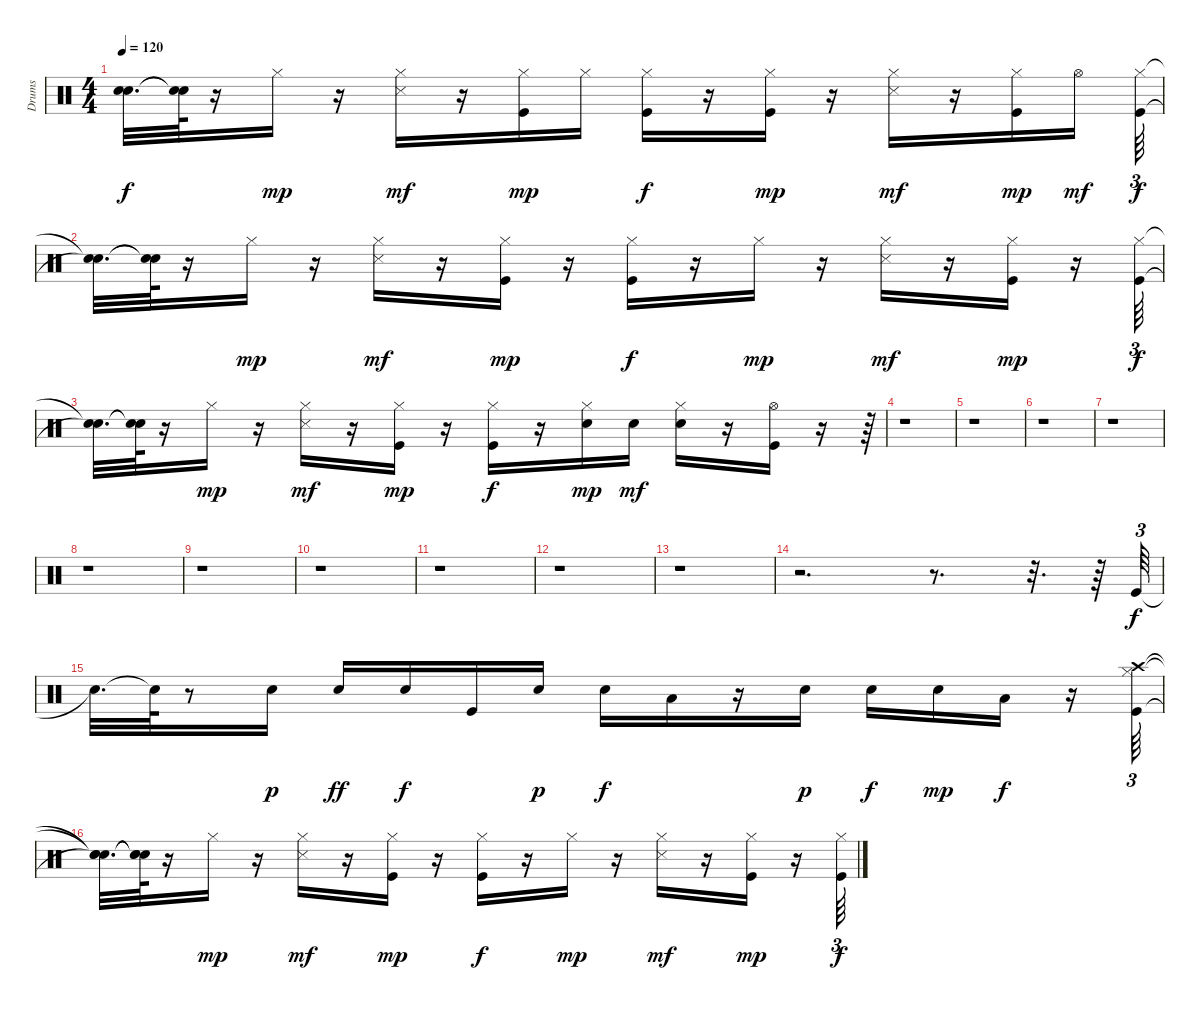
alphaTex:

\track ("Drums" "Drums") {instrument percussion}
\staff {score}
\articulation defaults
\ts (4 4)
\tempo 120
\clef neutral
\ks c
("Snare (hit)"{t} "Snare (hit)"{t}).32{d dy f} ("Snare (hit)"{t} "Snare (hit)"{t}).64 r.16 "Hi-Hat (closed)".16{dy mp} r.16 ("Hi-Hat (closed)" "Snare (side stick) 3").16{dy mf} r.16 ("Kick (hit)" "Hi-Hat (closed)").16{dy mp} "Hi-Hat (closed)".16 ("Kick (hit)" "Hi-Hat (closed)").16{dy f} r.16 ("Kick (hit)" "Hi-Hat (closed)").16{dy mp} r.16 ("Hi-Hat (closed)" "Snare (side stick) 3").16{dy mf} r.16 ("Kick (hit)" "Hi-Hat (closed)").16{dy mp} "Hi-Hat (open)".16{dy mf} ("Kick (hit)" "Hi-Hat (closed)").64{tu (3 2) dy f} |
("Snare (hit)"{t} "Snare (hit)"{t}).32{d} ("Snare (hit)"{t} "Snare (hit)"{t}).64 r.16 "Hi-Hat (closed)".16{dy mp} r.16 ("Hi-Hat (closed)" "Snare (side stick) 3").16{dy mf} r.16 ("Kick (hit)" "Hi-Hat (closed)").16{dy mp} r.16 ("Kick (hit)" "Hi-Hat (closed)").16{dy f} r.16 "Hi-Hat (closed)".16{dy mp} r.16 ("Hi-Hat (closed)" "Snare (side stick) 3").16{dy mf} r.16 ("Kick (hit)" "Hi-Hat (closed)").16{dy mp} r.16 ("Kick (hit)" "Hi-Hat (closed)").64{tu (3 2) dy f} |
("Snare (hit)"{t} "Snare (hit)"{t}).32{d} ("Snare (hit)"{t} "Snare (hit)"{t}).64 r.16 "Hi-Hat (closed)".16{dy mp} r.16 ("Hi-Hat (closed)" "Snare (side stick) 3").16{dy mf} r.16 ("Kick (hit)" "Hi-Hat (closed)").16{dy mp} r.16 ("Kick (hit)" "Hi-Hat (closed)").16{dy f} r.16 ("Snare (hit) 2" "Hi-Hat (closed)").16{dy mp} "Snare (hit) 2".16{dy mf} ("Snare (hit) 2" "Hi-Hat (closed)").16 r.16 ("Kick (hit)" "Hi-Hat (open)").16 r.16 r.64{tu (3 2)} |
r.1 |
r.1 |
r.1 |
r.1 |
r.1 |
r.1 |
r.1 |
r.1 |
r.1 |
r.1 |
r.2{d} r.8{d} r.32{d} r.64 "Kick (hit)".64{tu (3 2) dy f} |
"Snare (hit)"{t}.32{d} "Snare (hit)"{t}.64 r.8 "Snare (hit) 2".16{dy p} "Snare (hit) 2".16{dy ff} "Snare (hit) 2".16{dy f} "Kick (hit)".16 "Snare (hit) 2".16{dy p} "Snare (hit) 2".16{dy f} "Low Tom (hit)".16 r.16 "Snare (hit) 2".16{dy p} "Snare (hit) 2".16{dy f} "Snare (hit) 2".16{dy mp} "Low Floor Tom (hit)".16{dy f} r.16 ("Kick (hit)" "Hi-Hat (closed)" "Crash high (hit)").64{tu (3 2)} |
("Snare (hit)"{t} "Snare (hit)"{t} "Snare (hit)"{t}).32{d} ("Snare (hit)"{t} "Snare (hit)"{t} "Snare (hit)"{t}).64 r.16 "Hi-Hat (closed)".16{dy mp} r.16 ("Hi-Hat (closed)" "Snare (side stick) 3").16{dy mf} r.16 ("Kick (hit)" "Hi-Hat (closed)").16{dy mp} r.16 ("Kick (hit)" "Hi-Hat (closed)").16{dy f} r.16 "Hi-Hat (closed)".16{dy mp} r.16 ("Hi-Hat (closed)" "Snare (side stick) 3").16{dy mf} r.16 ("Kick (hit)" "Hi-Hat (closed)").16{dy mp} r.16 ("Kick (hit)" "Hi-Hat (closed)").64{tu (3 2) dy f}
